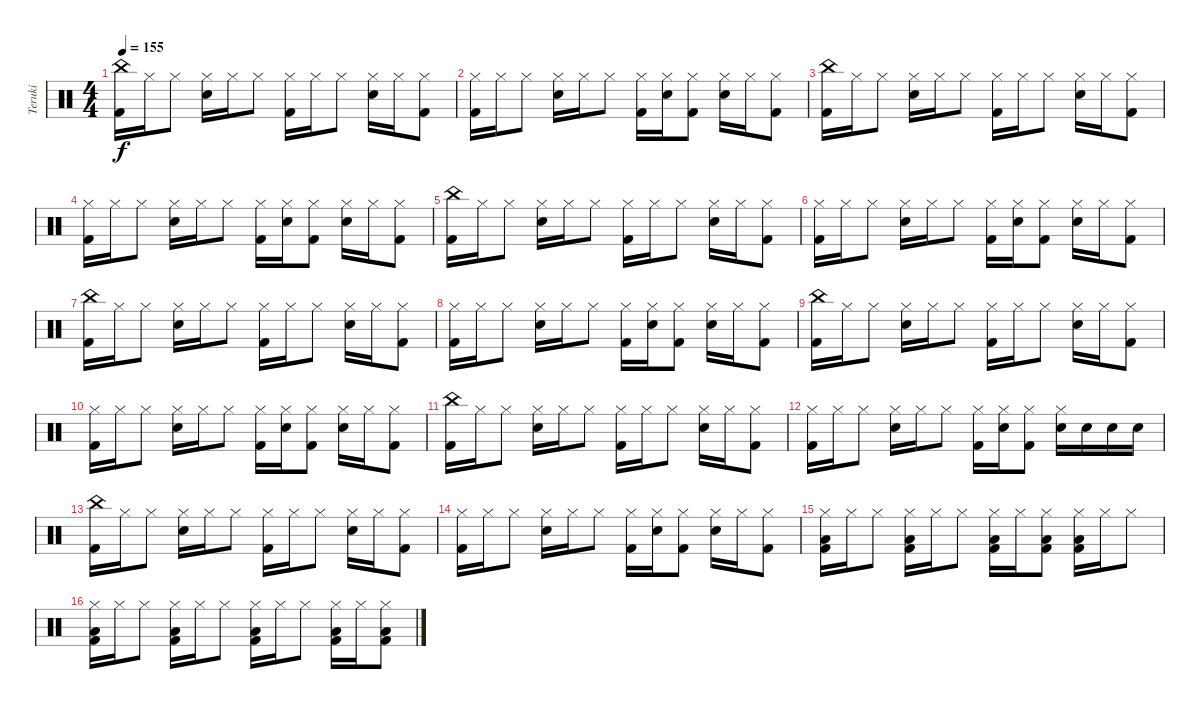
\track ("Teruki" "Teruki") {instrument percussion}
\staff {score}
\articulation defaults
\ts (4 4)
\tempo 155
\clef neutral
\ks c
("China (hit)" "Kick (hit) 2").16{dy f} "Hi-Hat (closed)".16 "Hi-Hat (closed)".8 ("Hi-Hat (closed)" "Snare (hit) 2").16 "Hi-Hat (closed)".16 "Hi-Hat (closed)".8 ("Hi-Hat (closed)" "Kick (hit) 2").16 "Hi-Hat (closed)".16 "Hi-Hat (closed)".8 ("Hi-Hat (closed)" "Snare (hit) 2").16 "Hi-Hat (closed)".16 ("Hi-Hat (closed)" "Kick (hit) 2").8 |
("Hi-Hat (closed)" "Kick (hit) 2").16 "Hi-Hat (closed)".16 "Hi-Hat (closed)".8 ("Hi-Hat (closed)" "Snare (hit) 2").16 "Hi-Hat (closed)".16 "Hi-Hat (closed)".8 ("Hi-Hat (closed)" "Kick (hit) 2").16 ("Hi-Hat (closed)" "Snare (hit) 2").16 ("Hi-Hat (closed)" "Kick (hit) 2").8 ("Hi-Hat (closed)" "Snare (hit) 2").16 "Hi-Hat (closed)".16 ("Hi-Hat (closed)" "Kick (hit) 2").8 |
("China (hit)" "Kick (hit) 2").16 "Hi-Hat (closed)".16 "Hi-Hat (closed)".8 ("Hi-Hat (closed)" "Snare (hit) 2").16 "Hi-Hat (closed)".16 "Hi-Hat (closed)".8 ("Hi-Hat (closed)" "Kick (hit) 2").16 "Hi-Hat (closed)".16 "Hi-Hat (closed)".8 ("Hi-Hat (closed)" "Snare (hit) 2").16 "Hi-Hat (closed)".16 ("Hi-Hat (closed)" "Kick (hit) 2").8 |
("Hi-Hat (closed)" "Kick (hit) 2").16 "Hi-Hat (closed)".16 "Hi-Hat (closed)".8 ("Hi-Hat (closed)" "Snare (hit) 2").16 "Hi-Hat (closed)".16 "Hi-Hat (closed)".8 ("Hi-Hat (closed)" "Kick (hit) 2").16 ("Hi-Hat (closed)" "Snare (hit) 2").16 ("Hi-Hat (closed)" "Kick (hit) 2").8 ("Hi-Hat (closed)" "Snare (hit) 2").16 "Hi-Hat (closed)".16 ("Hi-Hat (closed)" "Kick (hit) 2").8 |
("China (hit)" "Kick (hit) 2").16 "Hi-Hat (closed)".16 "Hi-Hat (closed)".8 ("Hi-Hat (closed)" "Snare (hit) 2").16 "Hi-Hat (closed)".16 "Hi-Hat (closed)".8 ("Hi-Hat (closed)" "Kick (hit) 2").16 "Hi-Hat (closed)".16 "Hi-Hat (closed)".8 ("Hi-Hat (closed)" "Snare (hit) 2").16 "Hi-Hat (closed)".16 ("Hi-Hat (closed)" "Kick (hit) 2").8 |
("Hi-Hat (closed)" "Kick (hit) 2").16 "Hi-Hat (closed)".16 "Hi-Hat (closed)".8 ("Hi-Hat (closed)" "Snare (hit) 2").16 "Hi-Hat (closed)".16 "Hi-Hat (closed)".8 ("Hi-Hat (closed)" "Kick (hit) 2").16 ("Hi-Hat (closed)" "Snare (hit) 2").16 ("Hi-Hat (closed)" "Kick (hit) 2").8 ("Hi-Hat (closed)" "Snare (hit) 2").16 "Hi-Hat (closed)".16 ("Hi-Hat (closed)" "Kick (hit) 2").8 |
("China (hit)" "Kick (hit) 2").16 "Hi-Hat (closed)".16 "Hi-Hat (closed)".8 ("Hi-Hat (closed)" "Snare (hit) 2").16 "Hi-Hat (closed)".16 "Hi-Hat (closed)".8 ("Hi-Hat (closed)" "Kick (hit) 2").16 "Hi-Hat (closed)".16 "Hi-Hat (closed)".8 ("Hi-Hat (closed)" "Snare (hit) 2").16 "Hi-Hat (closed)".16 ("Hi-Hat (closed)" "Kick (hit) 2").8 |
("Hi-Hat (closed)" "Kick (hit) 2").16 "Hi-Hat (closed)".16 "Hi-Hat (closed)".8 ("Hi-Hat (closed)" "Snare (hit) 2").16 "Hi-Hat (closed)".16 "Hi-Hat (closed)".8 ("Hi-Hat (closed)" "Kick (hit) 2").16 ("Hi-Hat (closed)" "Snare (hit) 2").16 ("Hi-Hat (closed)" "Kick (hit) 2").8 ("Hi-Hat (closed)" "Snare (hit) 2").16 "Hi-Hat (closed)".16 ("Hi-Hat (closed)" "Kick (hit) 2").8 |
("China (hit)" "Kick (hit) 2").16 "Hi-Hat (closed)".16 "Hi-Hat (closed)".8 ("Hi-Hat (closed)" "Snare (hit) 2").16 "Hi-Hat (closed)".16 "Hi-Hat (closed)".8 ("Hi-Hat (closed)" "Kick (hit) 2").16 "Hi-Hat (closed)".16 "Hi-Hat (closed)".8 ("Hi-Hat (closed)" "Snare (hit) 2").16 "Hi-Hat (closed)".16 ("Hi-Hat (closed)" "Kick (hit) 2").8 |
("Hi-Hat (closed)" "Kick (hit) 2").16 "Hi-Hat (closed)".16 "Hi-Hat (closed)".8 ("Hi-Hat (closed)" "Snare (hit) 2").16 "Hi-Hat (closed)".16 "Hi-Hat (closed)".8 ("Hi-Hat (closed)" "Kick (hit) 2").16 ("Hi-Hat (closed)" "Snare (hit) 2").16 ("Hi-Hat (closed)" "Kick (hit) 2").8 ("Hi-Hat (closed)" "Snare (hit) 2").16 "Hi-Hat (closed)".16 ("Hi-Hat (closed)" "Kick (hit) 2").8 |
("China (hit)" "Kick (hit) 2").16 "Hi-Hat (closed)".16 "Hi-Hat (closed)".8 ("Hi-Hat (closed)" "Snare (hit) 2").16 "Hi-Hat (closed)".16 "Hi-Hat (closed)".8 ("Hi-Hat (closed)" "Kick (hit) 2").16 "Hi-Hat (closed)".16 "Hi-Hat (closed)".8 ("Hi-Hat (closed)" "Snare (hit) 2").16 "Hi-Hat (closed)".16 ("Hi-Hat (closed)" "Kick (hit) 2").8 |
("Hi-Hat (closed)" "Kick (hit) 2").16 "Hi-Hat (closed)".16 "Hi-Hat (closed)".8 ("Hi-Hat (closed)" "Snare (hit) 2").16 "Hi-Hat (closed)".16 "Hi-Hat (closed)".8 ("Hi-Hat (closed)" "Kick (hit) 2").16 ("Hi-Hat (closed)" "Snare (hit) 2").16 ("Hi-Hat (closed)" "Kick (hit) 2").8 ("Hi-Hat (closed)" "Snare (hit) 2").16 "Snare (hit) 2".16 "Snare (hit) 2".16 "Snare (hit) 2".16 |
("China (hit)" "Kick (hit) 2").16 "Hi-Hat (closed)".16 "Hi-Hat (closed)".8 ("Hi-Hat (closed)" "Snare (hit) 2").16 "Hi-Hat (closed)".16 "Hi-Hat (closed)".8 ("Hi-Hat (closed)" "Kick (hit) 2").16 "Hi-Hat (closed)".16 "Hi-Hat (closed)".8 ("Hi-Hat (closed)" "Snare (hit) 2").16 "Hi-Hat (closed)".16 ("Hi-Hat (closed)" "Kick (hit) 2").8 |
("Hi-Hat (closed)" "Kick (hit) 2").16 "Hi-Hat (closed)".16 "Hi-Hat (closed)".8 ("Hi-Hat (closed)" "Snare (hit) 2").16 "Hi-Hat (closed)".16 "Hi-Hat (closed)".8 ("Hi-Hat (closed)" "Kick (hit) 2").16 ("Hi-Hat (closed)" "Snare (hit) 2").16 ("Hi-Hat (closed)" "Kick (hit) 2").8 ("Hi-Hat (closed)" "Snare (hit) 2").16 "Hi-Hat (closed)".16 ("Hi-Hat (closed)" "Kick (hit) 2").8 |
("Hi-Hat (closed)" "Kick (hit) 2" "Low Tom (hit)").16 "Hi-Hat (closed)".16 "Hi-Hat (closed)".8 ("Hi-Hat (closed)" "Kick (hit) 2" "Low Tom (hit)").16 "Hi-Hat (closed)".16 "Hi-Hat (closed)".8 ("Hi-Hat (closed)" "Kick (hit) 2" "Low Tom (hit)").16 "Hi-Hat (closed)".16 ("Hi-Hat (closed)" "Kick (hit) 2" "Low Tom (hit)").8 ("Hi-Hat (closed)" "Kick (hit) 2" "Low Tom (hit)").16 "Hi-Hat (closed)".16 "Hi-Hat (closed)".8 |
("Hi-Hat (closed)" "Kick (hit) 2" "Low Tom (hit)").16 "Hi-Hat (closed)".16 "Hi-Hat (closed)".8 ("Hi-Hat (closed)" "Kick (hit) 2" "Low Tom (hit)").16 "Hi-Hat (closed)".16 "Hi-Hat (closed)".8 ("Hi-Hat (closed)" "Kick (hit) 2" "Low Tom (hit)").16 "Hi-Hat (closed)".16 "Hi-Hat (closed)".8 ("Hi-Hat (closed)" "Kick (hit) 2" "Low Tom (hit)").16 "Hi-Hat (closed)".16 ("Hi-Hat (closed)" "Kick (hit) 2" "Low Tom (hit)").8
